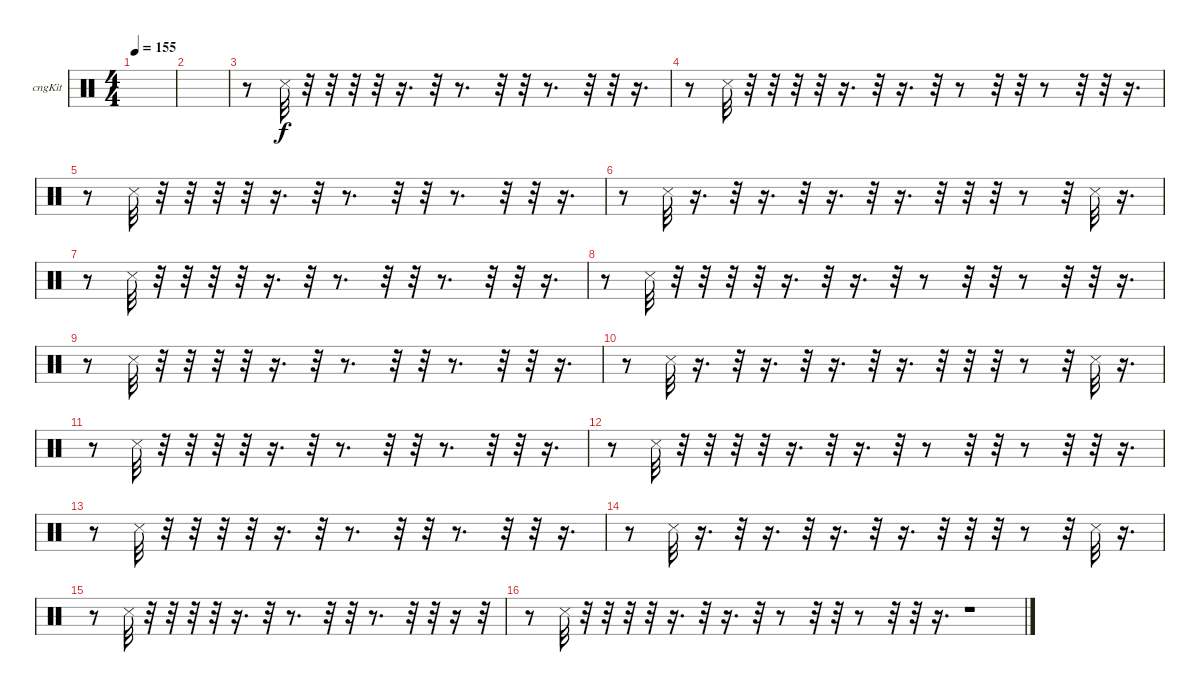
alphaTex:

\bracketExtendMode groupsimilarinstruments
\firstSystemTrackNameOrientation horizontal
\otherSystemsTrackNameOrientation horizontal
\track ("Е. Кулаков" "cngKit") {instrument percussion}
\staff {score}
\articulation defaults
\ts (4 4)
\tempo 155
\clef neutral
\ks c
|
|
r.8 "Snare (side stick) 3".32 r.32 r.32 r.32 r.32 r.16{d} r.32 r.8{d} r.32 r.32 r.8{d} r.32 r.32 r.16{d} |
r.8 "Snare (side stick) 3".32 r.32 r.32 r.32 r.32 r.16{d} r.32 r.16{d} r.32 r.8 r.32 r.32 r.8 r.32 r.32 r.16{d} |
r.8 "Snare (side stick) 3".32 r.32 r.32 r.32 r.32 r.16{d} r.32 r.8{d} r.32 r.32 r.8{d} r.32 r.32 r.16{d} |
r.8 "Snare (side stick) 3".32 r.16{d} r.32 r.16{d} r.32 r.16{d} r.32 r.16{d} r.32 r.32 r.32 r.8 r.32 "Snare (side stick) 3".32 r.16{d} |
r.8 "Snare (side stick) 3".32 r.32 r.32 r.32 r.32 r.16{d} r.32 r.8{d} r.32 r.32 r.8{d} r.32 r.32 r.16{d} |
r.8 "Snare (side stick) 3".32 r.32 r.32 r.32 r.32 r.16{d} r.32 r.16{d} r.32 r.8 r.32 r.32 r.8 r.32 r.32 r.16{d} |
r.8 "Snare (side stick) 3".32 r.32 r.32 r.32 r.32 r.16{d} r.32 r.8{d} r.32 r.32 r.8{d} r.32 r.32 r.16{d} |
r.8 "Snare (side stick) 3".32 r.16{d} r.32 r.16{d} r.32 r.16{d} r.32 r.16{d} r.32 r.32 r.32 r.8 r.32 "Snare (side stick) 3".32 r.16{d} |
r.8 "Snare (side stick) 3".32 r.32 r.32 r.32 r.32 r.16{d} r.32 r.8{d} r.32 r.32 r.8{d} r.32 r.32 r.16{d} |
r.8 "Snare (side stick) 3".32 r.32 r.32 r.32 r.32 r.16{d} r.32 r.16{d} r.32 r.8 r.32 r.32 r.8 r.32 r.32 r.16{d} |
r.8 "Snare (side stick) 3".32 r.32 r.32 r.32 r.32 r.16{d} r.32 r.8{d} r.32 r.32 r.8{d} r.32 r.32 r.16{d} |
r.8 "Snare (side stick) 3".32 r.16{d} r.32 r.16{d} r.32 r.16{d} r.32 r.16{d} r.32 r.32 r.32 r.8 r.32 "Snare (side stick) 3".32 r.16{d} |
r.8 "Snare (side stick) 3".32 r.32 r.32 r.32 r.32 r.16{d} r.32 r.8{d} r.32 r.32 r.8{d} r.32 r.32 r.16 r.32 |
r.8 "Snare (side stick) 3".32 r.32 r.32 r.32 r.32 r.16{d} r.32 r.16{d} r.32 r.8 r.32 r.32 r.8 r.32 r.32 r.16{d} r.1
